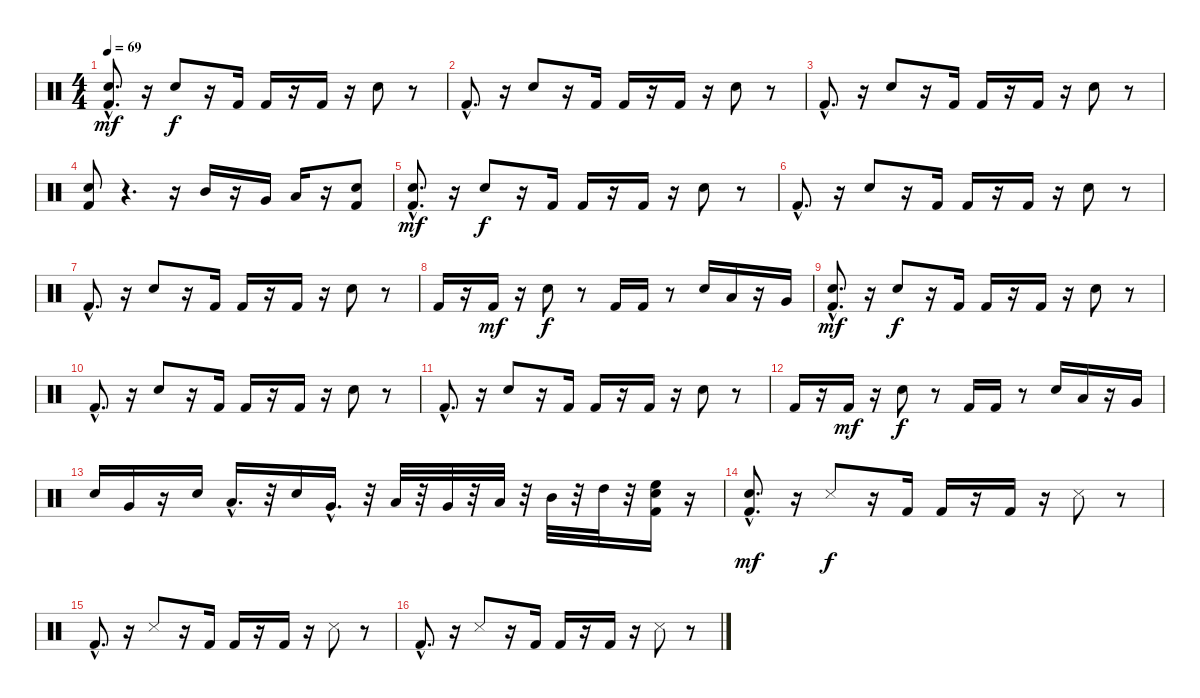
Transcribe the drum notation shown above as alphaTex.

\track "" {instrument percussion}
\staff {score}
\articulation defaults
\ts (4 4)
\tempo 69
\clef neutral
\ks c
("Kick (hit) 2"{hac} "Snare (hit) 2").8{d dy mf} r.16 "Snare (hit) 2".8{dy f} r.16 "Kick (hit) 2".16 "Kick (hit) 2".16 r.16 "Kick (hit) 2".16 r.16 "Snare (hit) 2".8 r.8 |
"Kick (hit) 2"{hac}.8{d} r.16 "Snare (hit) 2".8 r.16 "Kick (hit) 2".16 "Kick (hit) 2".16 r.16 "Kick (hit) 2".16 r.16 "Snare (hit) 2".8 r.8 |
"Kick (hit) 2"{hac}.8{d} r.16 "Snare (hit) 2".8 r.16 "Kick (hit) 2".16 "Kick (hit) 2".16 r.16 "Kick (hit) 2".16 r.16 "Snare (hit) 2".8 r.8 |
("Kick (hit) 2" "Snare (hit) 2").8 r.4{d} r.16 "Mid Tom (hit)".16 r.16 "Very Low Tom (hit)".16 "Low Tom (hit)".16 r.16 ("Kick (hit) 2" "Snare (hit) 2").8 |
("Kick (hit) 2"{hac} "Snare (hit) 2").8{d dy mf} r.16 "Snare (hit) 2".8{dy f} r.16 "Kick (hit) 2".16 "Kick (hit) 2".16 r.16 "Kick (hit) 2".16 r.16 "Snare (hit) 2".8 r.8 |
"Kick (hit) 2"{hac}.8{d} r.16 "Snare (hit) 2".8 r.16 "Kick (hit) 2".16 "Kick (hit) 2".16 r.16 "Kick (hit) 2".16 r.16 "Snare (hit) 2".8 r.8 |
"Kick (hit) 2"{hac}.8{d} r.16 "Snare (hit) 2".8 r.16 "Kick (hit) 2".16 "Kick (hit) 2".16 r.16 "Kick (hit) 2".16 r.16 "Snare (hit) 2".8 r.8 |
"Kick (hit) 2".16 r.16 "Kick (hit) 2".16{dy mf} r.16 "Snare (hit) 2".8{dy f} r.8 "Kick (hit) 2".16 "Kick (hit) 2".16 r.8 "Snare (hit) 2".16 "Low Tom (hit)".16 r.16 "Very Low Tom (hit)".16 |
("Kick (hit) 2"{hac} "Snare (hit) 2").8{d dy mf} r.16 "Snare (hit) 2".8{dy f} r.16 "Kick (hit) 2".16 "Kick (hit) 2".16 r.16 "Kick (hit) 2".16 r.16 "Snare (hit) 2".8 r.8 |
"Kick (hit) 2"{hac}.8{d} r.16 "Snare (hit) 2".8 r.16 "Kick (hit) 2".16 "Kick (hit) 2".16 r.16 "Kick (hit) 2".16 r.16 "Snare (hit) 2".8 r.8 |
"Kick (hit) 2"{hac}.8{d} r.16 "Snare (hit) 2".8 r.16 "Kick (hit) 2".16 "Kick (hit) 2".16 r.16 "Kick (hit) 2".16 r.16 "Snare (hit) 2".8 r.8 |
"Kick (hit) 2".16 r.16 "Kick (hit) 2".16{dy mf} r.16 "Snare (hit) 2".8{dy f} r.8 "Kick (hit) 2".16 "Kick (hit) 2".16 r.8 "Snare (hit) 2".16 "Low Tom (hit)".16 r.16 "Very Low Tom (hit)".16 |
"Snare (hit) 2".16 "Very Low Tom (hit)".16 r.16 "Snare (hit) 2".16 "Low Floor Tom (hit)"{hac}.16{d} r.32 "Snare (hit) 2".16 "Very Low Tom (hit)"{hac}.16{d} r.32 "Low Floor Tom (hit)".32 r.32 "Very Low Tom (hit)".32 r.32 "Low Tom (hit)".32 r.32 "Mid Tom (hit)".32 r.32 "High Tom (hit)".32 r.32 ("High Floor Tom (hit)" "Kick (hit) 2" "Snare (hit) 2").16 r.16 |
("Kick (hit) 2"{hac} "Snare (hit) 2").8{d dy mf} r.16 "Snare (side stick) 3".8{dy f} r.16 "Kick (hit) 2".16 "Kick (hit) 2".16 r.16 "Kick (hit) 2".16 r.16 "Snare (side stick) 3".8 r.8 |
"Kick (hit) 2"{hac}.8{d} r.16 "Snare (side stick) 3".8 r.16 "Kick (hit) 2".16 "Kick (hit) 2".16 r.16 "Kick (hit) 2".16 r.16 "Snare (side stick) 3".8 r.8 |
"Kick (hit) 2"{hac}.8{d} r.16 "Snare (side stick) 3".8 r.16 "Kick (hit) 2".16 "Kick (hit) 2".16 r.16 "Kick (hit) 2".16 r.16 "Snare (side stick) 3".8 r.8
